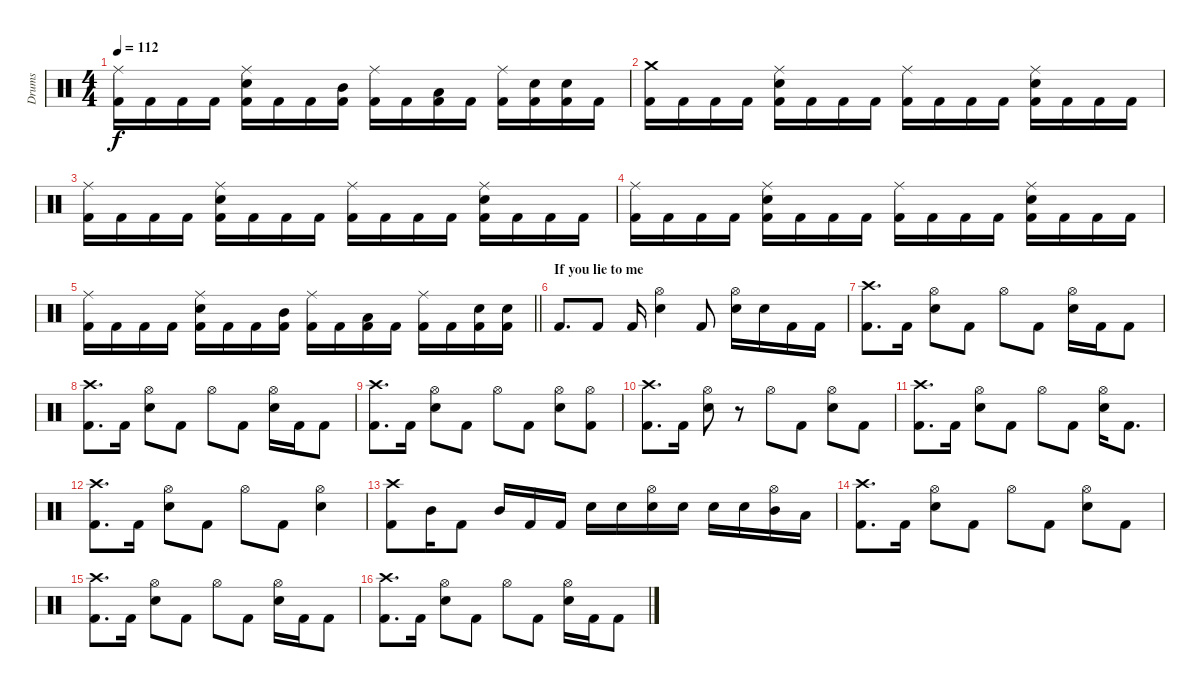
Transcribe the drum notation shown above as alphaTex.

\track ("Drums" "Drums") {instrument percussion}
\staff {score}
\articulation defaults
\ts (4 4)
\tempo 112
\clef neutral
\ks c
("Ride (middle)" "Kick (hit) 2").16{dy f} "Kick (hit) 2".16 "Kick (hit) 2".16 "Kick (hit) 2".16 ("Ride (middle)" "Electric Snare (hit)" "Kick (hit) 2").16 "Kick (hit) 2".16 "Kick (hit) 2".16 ("Mid Tom (hit)" "Kick (hit) 2").16 ("Ride (middle)" "Kick (hit) 2").16 "Kick (hit) 2".16 ("Low Tom (hit)" "Kick (hit) 2").16 "Kick (hit) 2".16 ("Ride (middle)" "Kick (hit) 2").16 ("Electric Snare (hit)" "Kick (hit) 2").16 ("Electric Snare (hit)" "Kick (hit) 2").16 "Kick (hit) 2".16 |
("Crash medium (hit)" "Kick (hit) 2").16 "Kick (hit) 2".16 "Kick (hit) 2".16 "Kick (hit) 2".16 ("Ride (middle)" "Electric Snare (hit)" "Kick (hit) 2").16 "Kick (hit) 2".16 "Kick (hit) 2".16 "Kick (hit) 2".16 ("Ride (middle)" "Kick (hit) 2").16 "Kick (hit) 2".16 "Kick (hit) 2".16 "Kick (hit) 2".16 ("Ride (middle)" "Electric Snare (hit)" "Kick (hit) 2").16 "Kick (hit) 2".16 "Kick (hit) 2".16 "Kick (hit) 2".16 |
("Ride (middle)" "Kick (hit) 2").16 "Kick (hit) 2".16 "Kick (hit) 2".16 "Kick (hit) 2".16 ("Ride (middle)" "Electric Snare (hit)" "Kick (hit) 2").16 "Kick (hit) 2".16 "Kick (hit) 2".16 "Kick (hit) 2".16 ("Ride (middle)" "Kick (hit) 2").16 "Kick (hit) 2".16 "Kick (hit) 2".16 "Kick (hit) 2".16 ("Ride (middle)" "Electric Snare (hit)" "Kick (hit) 2").16 "Kick (hit) 2".16 "Kick (hit) 2".16 "Kick (hit) 2".16 |
("Ride (middle)" "Kick (hit) 2").16 "Kick (hit) 2".16 "Kick (hit) 2".16 "Kick (hit) 2".16 ("Ride (middle)" "Electric Snare (hit)" "Kick (hit) 2").16 "Kick (hit) 2".16 "Kick (hit) 2".16 "Kick (hit) 2".16 ("Ride (middle)" "Kick (hit) 2").16 "Kick (hit) 2".16 "Kick (hit) 2".16 "Kick (hit) 2".16 ("Ride (middle)" "Electric Snare (hit)" "Kick (hit) 2").16 "Kick (hit) 2".16 "Kick (hit) 2".16 "Kick (hit) 2".16 |
\barLineRight lightlight
("Ride (middle)" "Kick (hit) 2").16 "Kick (hit) 2".16 "Kick (hit) 2".16 "Kick (hit) 2".16 ("Ride (middle)" "Electric Snare (hit)" "Kick (hit) 2").16 "Kick (hit) 2".16 "Kick (hit) 2".16 ("Mid Tom (hit)" "Kick (hit) 2").16 ("Ride (middle)" "Kick (hit) 2").16 "Kick (hit) 2".16 ("Low Tom (hit)" "Kick (hit) 2").16 "Kick (hit) 2".16 ("Ride (middle)" "Kick (hit) 2").16 "Kick (hit) 2".16 ("Electric Snare (hit)" "Kick (hit) 2").16 ("Electric Snare (hit)" "Kick (hit) 2").16 |
\section ("" "If you lie to me")
"Kick (hit) 2".8{d} "Kick (hit) 2".8 "Kick (hit) 2".16 ("Hi-Hat (open)" "Electric Snare (hit)").4 "Kick (hit) 2".8 ("Hi-Hat (open)" "Electric Snare (hit)").16 "Electric Snare (hit)".16 "Kick (hit) 2".16 "Kick (hit) 2".16 |
("Crash high (hit)" "Kick (hit) 2").8{d} "Kick (hit) 2".16 ("Hi-Hat (open)" "Electric Snare (hit)").8 "Kick (hit) 2".8 "Hi-Hat (open)".8 "Kick (hit) 2".8 ("Hi-Hat (open)" "Electric Snare (hit)").16 "Kick (hit) 2".16 "Kick (hit) 2".8 |
("Crash high (hit)" "Kick (hit) 2").8{d} "Kick (hit) 2".16 ("Hi-Hat (open)" "Electric Snare (hit)").8 "Kick (hit) 2".8 "Hi-Hat (open)".8 "Kick (hit) 2".8 ("Hi-Hat (open)" "Electric Snare (hit)").16 "Kick (hit) 2".16 "Kick (hit) 2".8 |
("Crash high (hit)" "Kick (hit) 2").8{d} "Kick (hit) 2".16 ("Hi-Hat (open)" "Electric Snare (hit)").8 "Kick (hit) 2".8 "Hi-Hat (open)".8 "Kick (hit) 2".8 ("Hi-Hat (open)" "Electric Snare (hit)").8 ("Hi-Hat (open)" "Kick (hit) 2").8 |
("Crash high (hit)" "Kick (hit) 2").8{d} "Kick (hit) 2".16 ("Hi-Hat (open)" "Electric Snare (hit)").8 r.8 "Hi-Hat (open)".8 "Kick (hit) 2".8 ("Hi-Hat (open)" "Electric Snare (hit)").8 "Kick (hit) 2".8 |
("Crash high (hit)" "Kick (hit) 2").8{d} "Kick (hit) 2".16 ("Hi-Hat (open)" "Electric Snare (hit)").8 "Kick (hit) 2".8 "Hi-Hat (open)".8 "Kick (hit) 2".8 ("Hi-Hat (open)" "Electric Snare (hit)").16 "Kick (hit) 2".8{d} |
("Crash high (hit)" "Kick (hit) 2").8{d} "Kick (hit) 2".16 ("Hi-Hat (open)" "Electric Snare (hit)").8 "Kick (hit) 2".8 "Hi-Hat (open)".8 "Kick (hit) 2".8 ("Hi-Hat (open)" "Electric Snare (hit)").4 |
("Crash high (hit)" "Kick (hit) 2").8 "Mid Tom (hit)".16 "Kick (hit) 2".8 "Mid Tom (hit)".16 "Kick (hit) 2".16 "Kick (hit) 2".16 "Electric Snare (hit)".16 "Electric Snare (hit)".16 ("Hi-Hat (open)" "Electric Snare (hit)").16 "Electric Snare (hit)".16 "Electric Snare (hit)".16 "Electric Snare (hit)".16 ("Hi-Hat (open)" "Mid Tom (hit)").16 "Low Tom (hit)".16 |
("Crash high (hit)" "Kick (hit) 2").8{d} "Kick (hit) 2".16 ("Hi-Hat (open)" "Electric Snare (hit)").8 "Kick (hit) 2".8 "Hi-Hat (open)".8 "Kick (hit) 2".8 ("Hi-Hat (open)" "Electric Snare (hit)").8 "Kick (hit) 2".8 |
("Crash high (hit)" "Kick (hit) 2").8{d} "Kick (hit) 2".16 ("Hi-Hat (open)" "Electric Snare (hit)").8 "Kick (hit) 2".8 "Hi-Hat (open)".8 "Kick (hit) 2".8 ("Hi-Hat (open)" "Electric Snare (hit)").16 "Kick (hit) 2".16 "Kick (hit) 2".8 |
("Crash high (hit)" "Kick (hit) 2").8{d} "Kick (hit) 2".16 ("Hi-Hat (open)" "Electric Snare (hit)").8 "Kick (hit) 2".8 "Hi-Hat (open)".8 "Kick (hit) 2".8 ("Hi-Hat (open)" "Electric Snare (hit)").16 "Kick (hit) 2".16 "Kick (hit) 2".8
